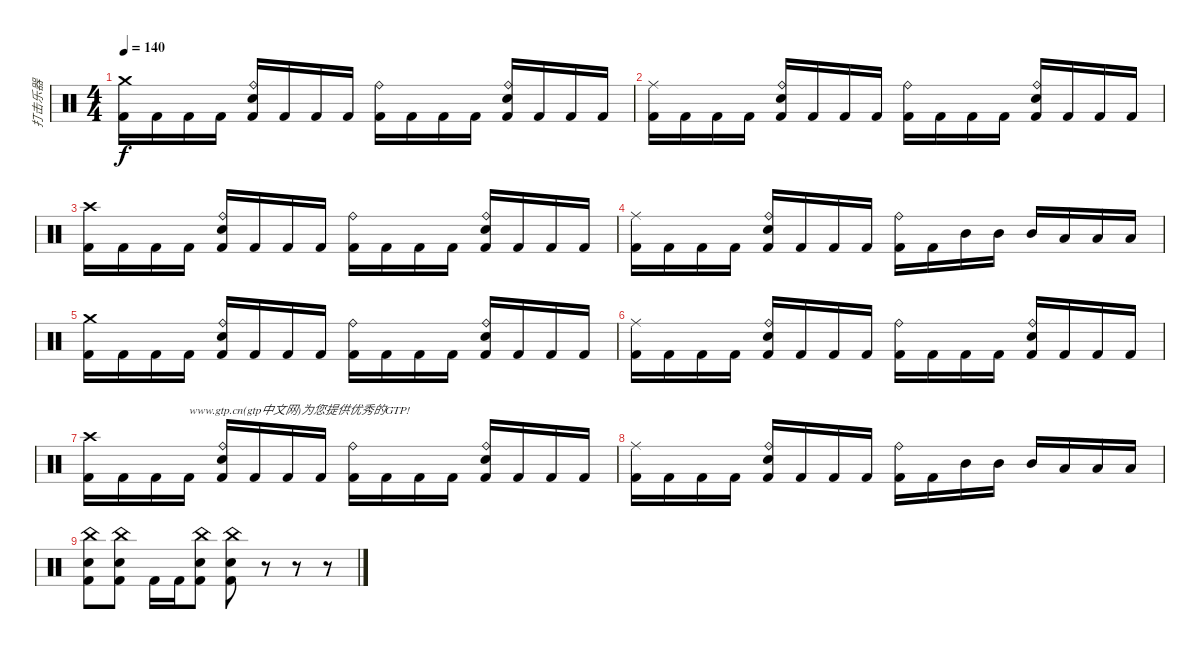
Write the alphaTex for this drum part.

\track ("打击乐器" "打击乐器") {instrument percussion}
\staff {score}
\articulation defaults
\ts (4 4)
\tempo 140
\clef neutral
\ks c
("Crash medium (hit)" "Kick (hit) 2").16{dy f} "Kick (hit) 2".16 "Kick (hit) 2".16 "Kick (hit) 2".16 ("Ride (bell)" "Snare (hit) 2" "Kick (hit) 2").16 "Kick (hit) 2".16 "Kick (hit) 2".16 "Kick (hit) 2".16 ("Ride (bell)" "Kick (hit) 2").16 "Kick (hit) 2".16 "Kick (hit) 2".16 "Kick (hit) 2".16 ("Ride (bell)" "Snare (hit) 2" "Kick (hit) 2").16 "Kick (hit) 2".16 "Kick (hit) 2".16 "Kick (hit) 2".16 |
("Ride (middle)" "Kick (hit) 2").16 "Kick (hit) 2".16 "Kick (hit) 2".16 "Kick (hit) 2".16 ("Ride (bell)" "Snare (hit) 2" "Kick (hit) 2").16 "Kick (hit) 2".16 "Kick (hit) 2".16 "Kick (hit) 2".16 ("Ride (bell)" "Kick (hit) 2").16 "Kick (hit) 2".16 "Kick (hit) 2".16 "Kick (hit) 2".16 ("Ride (bell)" "Snare (hit) 2" "Kick (hit) 2").16 "Kick (hit) 2".16 "Kick (hit) 2".16 "Kick (hit) 2".16 |
("Crash high (hit)" "Kick (hit) 2").16 "Kick (hit) 2".16 "Kick (hit) 2".16 "Kick (hit) 2".16 ("Ride (bell)" "Snare (hit) 2" "Kick (hit) 2").16 "Kick (hit) 2".16 "Kick (hit) 2".16 "Kick (hit) 2".16 ("Ride (bell)" "Kick (hit) 2").16 "Kick (hit) 2".16 "Kick (hit) 2".16 "Kick (hit) 2".16 ("Ride (bell)" "Snare (hit) 2" "Kick (hit) 2").16 "Kick (hit) 2".16 "Kick (hit) 2".16 "Kick (hit) 2".16 |
("Ride (middle)" "Kick (hit) 2").16 "Kick (hit) 2".16 "Kick (hit) 2".16 "Kick (hit) 2".16 ("Ride (bell)" "Snare (hit) 2" "Kick (hit) 2").16 "Kick (hit) 2".16 "Kick (hit) 2".16 "Kick (hit) 2".16 ("Ride (bell)" "Kick (hit) 2").16 "Kick (hit) 2".16 "Mid Tom (hit)".16 "Mid Tom (hit)".16 "Mid Tom (hit)".16 "Low Tom (hit)".16 "Low Tom (hit)".16 "Low Tom (hit)".16 |
("Crash medium (hit)" "Kick (hit) 2").16 "Kick (hit) 2".16 "Kick (hit) 2".16 "Kick (hit) 2".16 ("Ride (bell)" "Snare (hit) 2" "Kick (hit) 2").16 "Kick (hit) 2".16 "Kick (hit) 2".16 "Kick (hit) 2".16 ("Ride (bell)" "Kick (hit) 2").16 "Kick (hit) 2".16 "Kick (hit) 2".16 "Kick (hit) 2".16 ("Ride (bell)" "Snare (hit) 2" "Kick (hit) 2").16 "Kick (hit) 2".16 "Kick (hit) 2".16 "Kick (hit) 2".16 |
("Ride (middle)" "Kick (hit) 2").16 "Kick (hit) 2".16 "Kick (hit) 2".16 "Kick (hit) 2".16 ("Ride (bell)" "Snare (hit) 2" "Kick (hit) 2").16 "Kick (hit) 2".16 "Kick (hit) 2".16 "Kick (hit) 2".16 ("Ride (bell)" "Kick (hit) 2").16 "Kick (hit) 2".16 "Kick (hit) 2".16 "Kick (hit) 2".16 ("Ride (bell)" "Snare (hit) 2" "Kick (hit) 2").16 "Kick (hit) 2".16 "Kick (hit) 2".16 "Kick (hit) 2".16 |
("Crash high (hit)" "Kick (hit) 2").16 "Kick (hit) 2".16 "Kick (hit) 2".16 "Kick (hit) 2".16{txt "www.gtp.cn(gtp中文网)为您提供优秀的GTP!"} ("Ride (bell)" "Snare (hit) 2" "Kick (hit) 2").16 "Kick (hit) 2".16 "Kick (hit) 2".16 "Kick (hit) 2".16 ("Ride (bell)" "Kick (hit) 2").16 "Kick (hit) 2".16 "Kick (hit) 2".16 "Kick (hit) 2".16 ("Ride (bell)" "Snare (hit) 2" "Kick (hit) 2").16 "Kick (hit) 2".16 "Kick (hit) 2".16 "Kick (hit) 2".16 |
("Ride (middle)" "Kick (hit) 2").16 "Kick (hit) 2".16 "Kick (hit) 2".16 "Kick (hit) 2".16 ("Ride (bell)" "Snare (hit) 2" "Kick (hit) 2").16 "Kick (hit) 2".16 "Kick (hit) 2".16 "Kick (hit) 2".16 ("Ride (bell)" "Kick (hit) 2").16 "Kick (hit) 2".16 "Mid Tom (hit)".16 "Mid Tom (hit)".16 "Mid Tom (hit)".16 "Low Tom (hit)".16 "Low Tom (hit)".16 "Low Tom (hit)".16 |
("China (hit)" "Snare (hit) 2" "Kick (hit) 2").8 ("China (hit)" "Snare (hit) 2" "Kick (hit) 2").8 "Kick (hit) 2".16 "Kick (hit) 2".16 ("China (hit)" "Snare (hit) 2" "Kick (hit) 2").8 ("China (hit)" "Snare (hit) 2" "Kick (hit) 2").8 r.8 r.8 r.8
